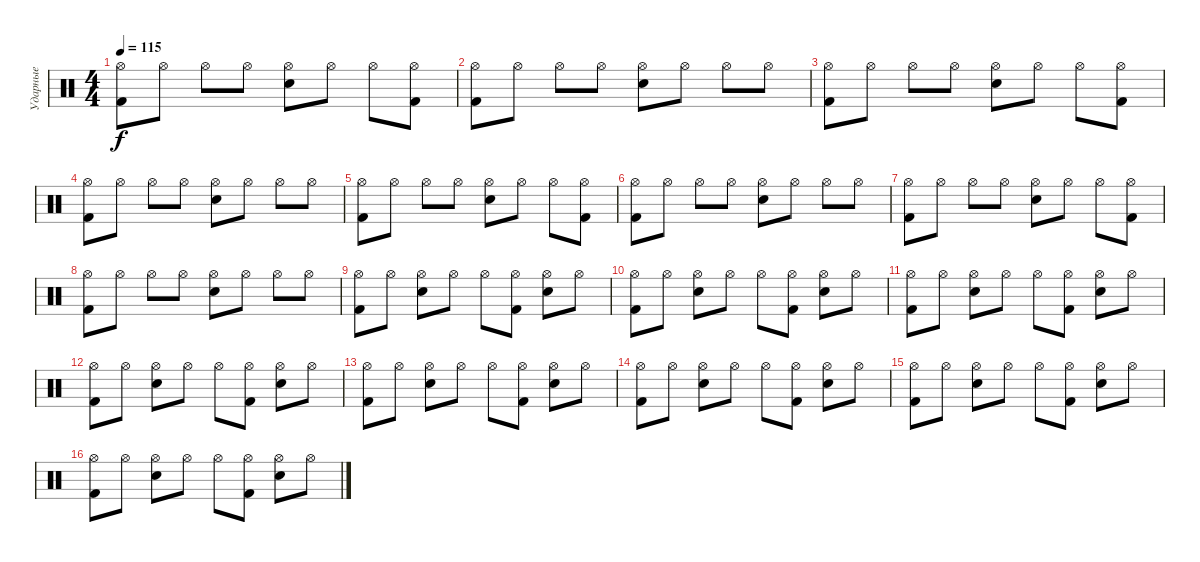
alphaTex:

\track ("Ударные" "Ударные") {instrument percussion}
\staff {score}
\articulation defaults
\ts (4 4)
\tempo 115
\clef neutral
\ks c
("Hi-Hat (open)" "Kick (hit) 2").8{dy f} "Hi-Hat (open)".8 "Hi-Hat (open)".8 "Hi-Hat (open)".8 ("Hi-Hat (open)" "Electric Snare (hit)").8 "Hi-Hat (open)".8 "Hi-Hat (open)".8 ("Hi-Hat (open)" "Kick (hit) 2").8 |
("Hi-Hat (open)" "Kick (hit) 2").8 "Hi-Hat (open)".8 "Hi-Hat (open)".8 "Hi-Hat (open)".8 ("Hi-Hat (open)" "Electric Snare (hit)").8 "Hi-Hat (open)".8 "Hi-Hat (open)".8 "Hi-Hat (open)".8 |
("Hi-Hat (open)" "Kick (hit) 2").8 "Hi-Hat (open)".8 "Hi-Hat (open)".8 "Hi-Hat (open)".8 ("Hi-Hat (open)" "Electric Snare (hit)").8 "Hi-Hat (open)".8 "Hi-Hat (open)".8 ("Hi-Hat (open)" "Kick (hit) 2").8 |
("Hi-Hat (open)" "Kick (hit) 2").8 "Hi-Hat (open)".8 "Hi-Hat (open)".8 "Hi-Hat (open)".8 ("Hi-Hat (open)" "Electric Snare (hit)").8 "Hi-Hat (open)".8 "Hi-Hat (open)".8 "Hi-Hat (open)".8 |
("Hi-Hat (open)" "Kick (hit) 2").8 "Hi-Hat (open)".8 "Hi-Hat (open)".8 "Hi-Hat (open)".8 ("Hi-Hat (open)" "Electric Snare (hit)").8 "Hi-Hat (open)".8 "Hi-Hat (open)".8 ("Hi-Hat (open)" "Kick (hit) 2").8 |
("Hi-Hat (open)" "Kick (hit) 2").8 "Hi-Hat (open)".8 "Hi-Hat (open)".8 "Hi-Hat (open)".8 ("Hi-Hat (open)" "Electric Snare (hit)").8 "Hi-Hat (open)".8 "Hi-Hat (open)".8 "Hi-Hat (open)".8 |
("Hi-Hat (open)" "Kick (hit) 2").8 "Hi-Hat (open)".8 "Hi-Hat (open)".8 "Hi-Hat (open)".8 ("Hi-Hat (open)" "Electric Snare (hit)").8 "Hi-Hat (open)".8 "Hi-Hat (open)".8 ("Hi-Hat (open)" "Kick (hit) 2").8 |
("Hi-Hat (open)" "Kick (hit) 2").8 "Hi-Hat (open)".8 "Hi-Hat (open)".8 "Hi-Hat (open)".8 ("Hi-Hat (open)" "Electric Snare (hit)").8 "Hi-Hat (open)".8 "Hi-Hat (open)".8 "Hi-Hat (open)".8 |
("Hi-Hat (open)" "Kick (hit) 2").8 "Hi-Hat (open)".8 ("Hi-Hat (open)" "Electric Snare (hit)").8 "Hi-Hat (open)".8 "Hi-Hat (open)".8 ("Hi-Hat (open)" "Kick (hit) 2").8 ("Hi-Hat (open)" "Electric Snare (hit)").8 "Hi-Hat (open)".8 |
("Hi-Hat (open)" "Kick (hit) 2").8 "Hi-Hat (open)".8 ("Hi-Hat (open)" "Electric Snare (hit)").8 "Hi-Hat (open)".8 "Hi-Hat (open)".8 ("Hi-Hat (open)" "Kick (hit) 2").8 ("Hi-Hat (open)" "Electric Snare (hit)").8 "Hi-Hat (open)".8 |
("Hi-Hat (open)" "Kick (hit) 2").8 "Hi-Hat (open)".8 ("Hi-Hat (open)" "Electric Snare (hit)").8 "Hi-Hat (open)".8 "Hi-Hat (open)".8 ("Hi-Hat (open)" "Kick (hit) 2").8 ("Hi-Hat (open)" "Electric Snare (hit)").8 "Hi-Hat (open)".8 |
("Hi-Hat (open)" "Kick (hit) 2").8 "Hi-Hat (open)".8 ("Hi-Hat (open)" "Electric Snare (hit)").8 "Hi-Hat (open)".8 "Hi-Hat (open)".8 ("Hi-Hat (open)" "Kick (hit) 2").8 ("Hi-Hat (open)" "Electric Snare (hit)").8 "Hi-Hat (open)".8 |
("Hi-Hat (open)" "Kick (hit) 2").8 "Hi-Hat (open)".8 ("Hi-Hat (open)" "Electric Snare (hit)").8 "Hi-Hat (open)".8 "Hi-Hat (open)".8 ("Hi-Hat (open)" "Kick (hit) 2").8 ("Hi-Hat (open)" "Electric Snare (hit)").8 "Hi-Hat (open)".8 |
("Hi-Hat (open)" "Kick (hit) 2").8 "Hi-Hat (open)".8 ("Hi-Hat (open)" "Electric Snare (hit)").8 "Hi-Hat (open)".8 "Hi-Hat (open)".8 ("Hi-Hat (open)" "Kick (hit) 2").8 ("Hi-Hat (open)" "Electric Snare (hit)").8 "Hi-Hat (open)".8 |
("Hi-Hat (open)" "Kick (hit) 2").8 "Hi-Hat (open)".8 ("Hi-Hat (open)" "Electric Snare (hit)").8 "Hi-Hat (open)".8 "Hi-Hat (open)".8 ("Hi-Hat (open)" "Kick (hit) 2").8 ("Hi-Hat (open)" "Electric Snare (hit)").8 "Hi-Hat (open)".8 |
("Hi-Hat (open)" "Kick (hit) 2").8 "Hi-Hat (open)".8 ("Hi-Hat (open)" "Electric Snare (hit)").8 "Hi-Hat (open)".8 "Hi-Hat (open)".8 ("Hi-Hat (open)" "Kick (hit) 2").8 ("Hi-Hat (open)" "Electric Snare (hit)").8 "Hi-Hat (open)".8
